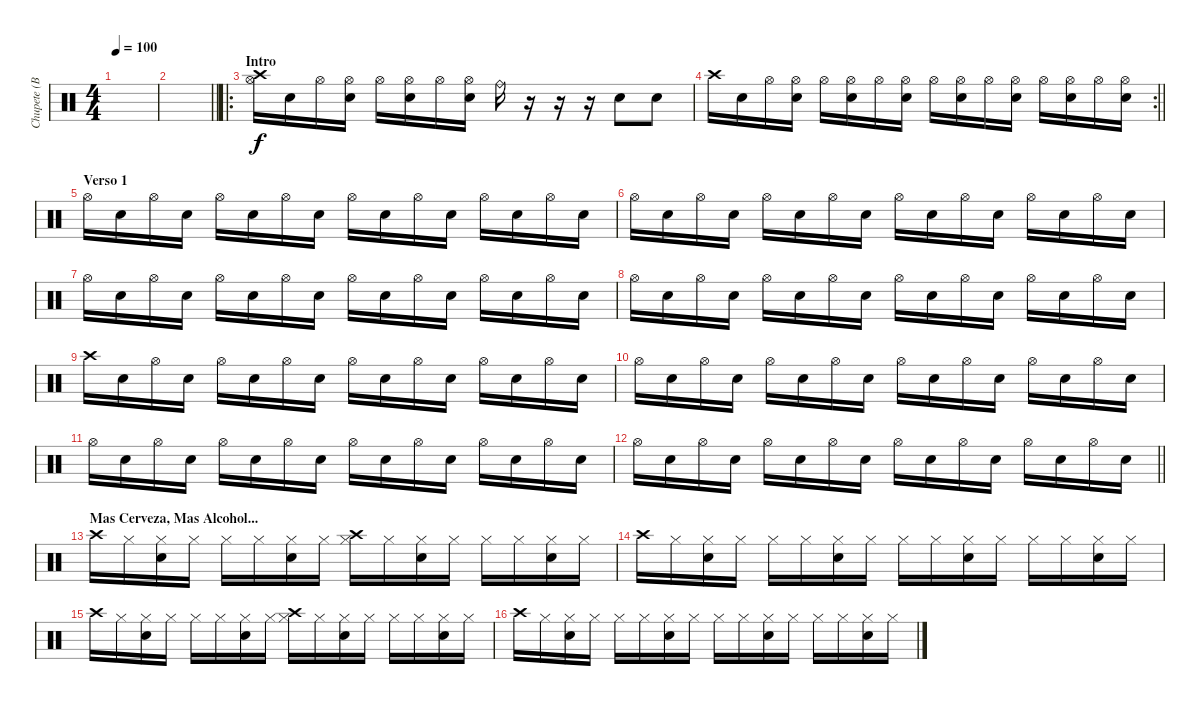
\track ("Chupete (Bateria)" "Chupete (B") {instrument percussion}
\staff {score}
\articulation defaults
\ts (4 4)
\tempo 100
\clef neutral
\ks c
|
\barLineRight lightlight
|
\ro
\section ("" "Intro")
("Crash high (hit)" "Hi-Hat (open)").16 "Electric Snare (hit)".16 "Hi-Hat (open)".16 ("Hi-Hat (open)" "Electric Snare (hit)").16 "Hi-Hat (open)".16 ("Hi-Hat (open)" "Electric Snare (hit)").16 "Hi-Hat (open)".16 ("Hi-Hat (open)" "Electric Snare (hit)").16 "Ride (bell)".16 r.16 r.16 r.16 "Electric Snare (hit)".8 "Electric Snare (hit)".8 |
\rc 2
\barLineRight lightlight "Crash high (hit)".16 "Electric Snare (hit)".16 "Hi-Hat (open)".16
("Hi-Hat (open)" "Electric Snare (hit)").16 "Hi-Hat (open)".16 ("Hi-Hat (open)" "Electric Snare (hit)").16 "Hi-Hat (open)".16 ("Hi-Hat (open)" "Electric Snare (hit)").16 "Hi-Hat (open)".16 ("Hi-Hat (open)" "Electric Snare (hit)").16 "Hi-Hat (open)".16 ("Hi-Hat (open)" "Electric Snare (hit)").16 "Hi-Hat (open)".16 ("Hi-Hat (open)" "Electric Snare (hit)").16 "Hi-Hat (open)".16 ("Hi-Hat (open)" "Electric Snare (hit)").16 |
\section ("" "Verso 1")
"Hi-Hat (open)".16 "Electric Snare (hit)".16 "Hi-Hat (open)".16 "Electric Snare (hit)".16 "Hi-Hat (open)".16 "Electric Snare (hit)".16 "Hi-Hat (open)".16 "Electric Snare (hit)".16 "Hi-Hat (open)".16 "Electric Snare (hit)".16 "Hi-Hat (open)".16 "Electric Snare (hit)".16 "Hi-Hat (open)".16 "Electric Snare (hit)".16 "Hi-Hat (open)".16 "Electric Snare (hit)".16 |
"Hi-Hat (open)".16 "Electric Snare (hit)".16 "Hi-Hat (open)".16 "Electric Snare (hit)".16 "Hi-Hat (open)".16 "Electric Snare (hit)".16 "Hi-Hat (open)".16 "Electric Snare (hit)".16 "Hi-Hat (open)".16 "Electric Snare (hit)".16 "Hi-Hat (open)".16 "Electric Snare (hit)".16 "Hi-Hat (open)".16 "Electric Snare (hit)".16 "Hi-Hat (open)".16 "Electric Snare (hit)".16 |
"Hi-Hat (open)".16 "Electric Snare (hit)".16 "Hi-Hat (open)".16 "Electric Snare (hit)".16 "Hi-Hat (open)".16 "Electric Snare (hit)".16 "Hi-Hat (open)".16 "Electric Snare (hit)".16 "Hi-Hat (open)".16 "Electric Snare (hit)".16 "Hi-Hat (open)".16 "Electric Snare (hit)".16 "Hi-Hat (open)".16 "Electric Snare (hit)".16 "Hi-Hat (open)".16 "Electric Snare (hit)".16 |
"Hi-Hat (open)".16 "Electric Snare (hit)".16 "Hi-Hat (open)".16 "Electric Snare (hit)".16 "Hi-Hat (open)".16 "Electric Snare (hit)".16 "Hi-Hat (open)".16 "Electric Snare (hit)".16 "Hi-Hat (open)".16 "Electric Snare (hit)".16 "Hi-Hat (open)".16 "Electric Snare (hit)".16 "Hi-Hat (open)".16 "Electric Snare (hit)".16 "Hi-Hat (open)".16 "Electric Snare (hit)".16 |
"Crash high (hit)".16 "Electric Snare (hit)".16 "Hi-Hat (open)".16 "Electric Snare (hit)".16 "Hi-Hat (open)".16 "Electric Snare (hit)".16 "Hi-Hat (open)".16 "Electric Snare (hit)".16 "Hi-Hat (open)".16 "Electric Snare (hit)".16 "Hi-Hat (open)".16 "Electric Snare (hit)".16 "Hi-Hat (open)".16 "Electric Snare (hit)".16 "Hi-Hat (open)".16 "Electric Snare (hit)".16 |
"Hi-Hat (open)".16 "Electric Snare (hit)".16 "Hi-Hat (open)".16 "Electric Snare (hit)".16 "Hi-Hat (open)".16 "Electric Snare (hit)".16 "Hi-Hat (open)".16 "Electric Snare (hit)".16 "Hi-Hat (open)".16 "Electric Snare (hit)".16 "Hi-Hat (open)".16 "Electric Snare (hit)".16 "Hi-Hat (open)".16 "Electric Snare (hit)".16 "Hi-Hat (open)".16 "Electric Snare (hit)".16 |
"Hi-Hat (open)".16 "Electric Snare (hit)".16 "Hi-Hat (open)".16 "Electric Snare (hit)".16 "Hi-Hat (open)".16 "Electric Snare (hit)".16 "Hi-Hat (open)".16 "Electric Snare (hit)".16 "Hi-Hat (open)".16 "Electric Snare (hit)".16 "Hi-Hat (open)".16 "Electric Snare (hit)".16 "Hi-Hat (open)".16 "Electric Snare (hit)".16 "Hi-Hat (open)".16 "Electric Snare (hit)".16 |
\barLineRight lightlight "Hi-Hat (open)".16 "Electric Snare (hit)".16 "Hi-Hat (open)".16 "Electric Snare (hit)".16 "Hi-Hat (open)".16 "Electric Snare (hit)".16 "Hi-Hat (open)".16 "Electric Snare (hit)".16 "Hi-Hat (open)".16 "Electric Snare (hit)".16 "Hi-Hat (open)".16 "Electric Snare (hit)".16 "Hi-Hat (open)".16 "Electric Snare (hit)".16 "Hi-Hat (open)".16 "Electric Snare (hit)".16
|
\section ("" "Mas Cerveza, Mas Alcohol...")
"Crash high (hit)".16 "Hi-Hat (closed)".16 ("Hi-Hat (closed)" "Electric Snare (hit)").16 "Hi-Hat (closed)".16 "Hi-Hat (closed)".16 "Hi-Hat (closed)".16 ("Hi-Hat (closed)" "Electric Snare (hit)").16 "Hi-Hat (closed)".16 ("Crash high (hit)" "Hi-Hat (closed)").16 "Hi-Hat (closed)".16 ("Hi-Hat (closed)" "Electric Snare (hit)").16 "Hi-Hat (closed)".16 "Hi-Hat (closed)".16 "Hi-Hat (closed)".16 ("Hi-Hat (closed)" "Electric Snare (hit)").16 "Hi-Hat (closed)".16 |
"Crash high (hit)".16 "Hi-Hat (closed)".16 ("Hi-Hat (closed)" "Electric Snare (hit)").16 "Hi-Hat (closed)".16 "Hi-Hat (closed)".16 "Hi-Hat (closed)".16 ("Hi-Hat (closed)" "Electric Snare (hit)").16 "Hi-Hat (closed)".16 "Hi-Hat (closed)".16 "Hi-Hat (closed)".16 ("Hi-Hat (closed)" "Electric Snare (hit)").16 "Hi-Hat (closed)".16 "Hi-Hat (closed)".16 "Hi-Hat (closed)".16 ("Hi-Hat (closed)" "Electric Snare (hit)").16 "Hi-Hat (closed)".16 |
"Crash high (hit)".16 "Hi-Hat (closed)".16 ("Hi-Hat (closed)" "Electric Snare (hit)").16 "Hi-Hat (closed)".16 "Hi-Hat (closed)".16 "Hi-Hat (closed)".16 ("Hi-Hat (closed)" "Electric Snare (hit)").16 "Hi-Hat (closed)".16 ("Crash high (hit)" "Hi-Hat (closed)").16 "Hi-Hat (closed)".16 ("Hi-Hat (closed)" "Electric Snare (hit)").16 "Hi-Hat (closed)".16 "Hi-Hat (closed)".16 "Hi-Hat (closed)".16 ("Hi-Hat (closed)" "Electric Snare (hit)").16 "Hi-Hat (closed)".16 |
"Crash high (hit)".16 "Hi-Hat (closed)".16 ("Hi-Hat (closed)" "Electric Snare (hit)").16 "Hi-Hat (closed)".16 "Hi-Hat (closed)".16 "Hi-Hat (closed)".16 ("Hi-Hat (closed)" "Electric Snare (hit)").16 "Hi-Hat (closed)".16 "Hi-Hat (closed)".16 "Hi-Hat (closed)".16 ("Hi-Hat (closed)" "Electric Snare (hit)").16 "Hi-Hat (closed)".16 "Hi-Hat (closed)".16 "Hi-Hat (closed)".16 ("Hi-Hat (closed)" "Electric Snare (hit)").16 "Hi-Hat (closed)".16
